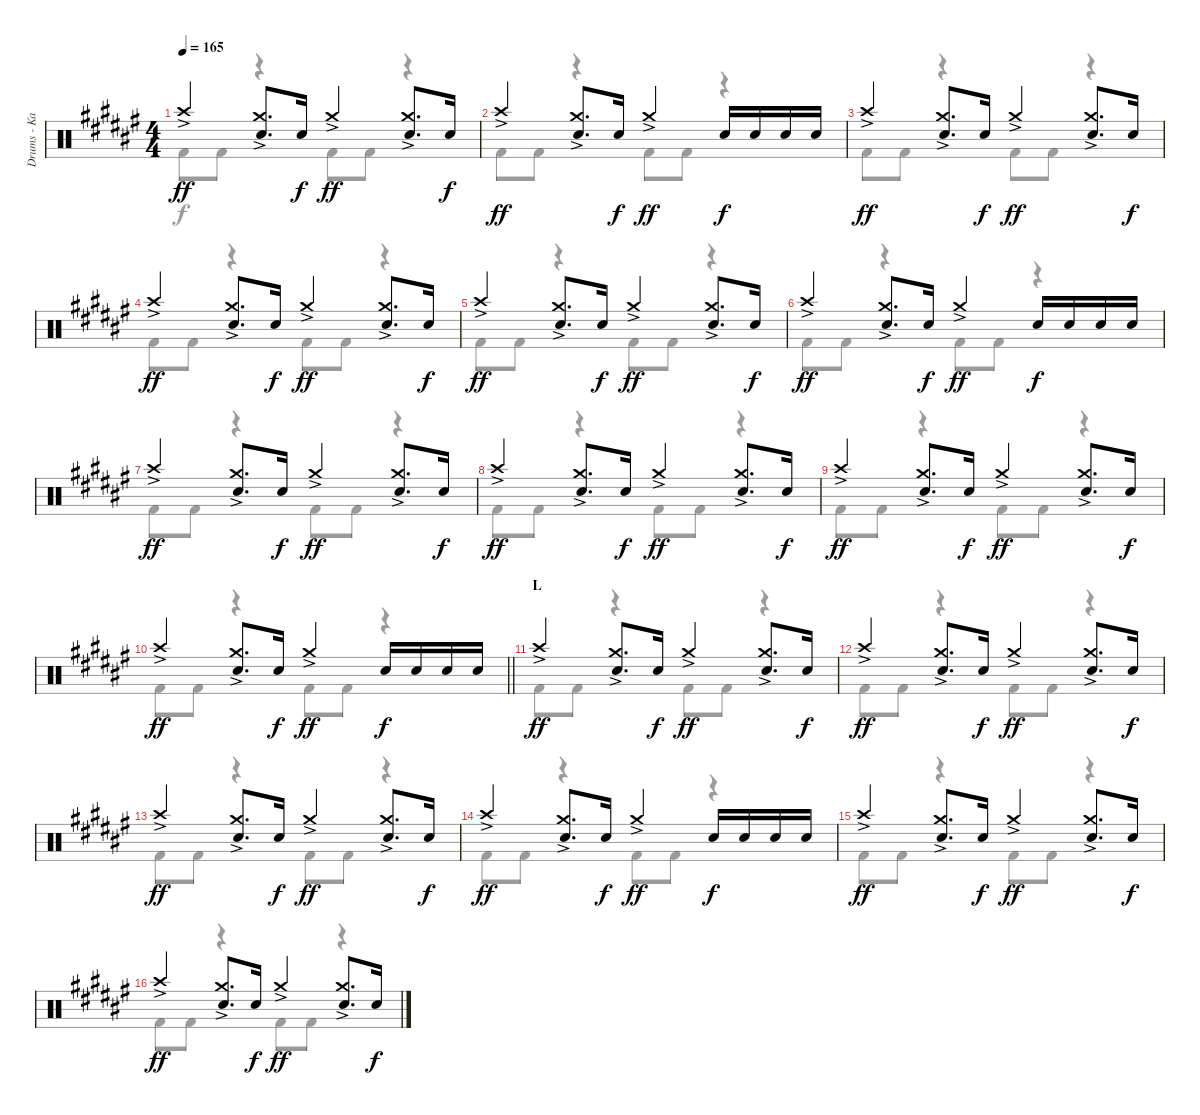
\track ("Drums - Kai" "Drums - Ka") {instrument percussion}
\staff {score}
\articulation defaults
\voice
\ts (4 4)
\tempo 165
\clef neutral
\ks f# "Crash high (hit)"{ac}.4{dy ff}
("Crash medium (hit)"{ac} "Electric Snare (hit)").8{d} "Electric Snare (hit)".16{dy f} "Crash medium (hit)"{ac}.4{dy ff} ("Crash medium (hit)"{ac} "Electric Snare (hit)").8{d} "Electric Snare (hit)".16{dy f} |
"Crash high (hit)"{ac}.4{dy ff} ("Crash medium (hit)"{ac} "Electric Snare (hit)").8{d} "Electric Snare (hit)".16{dy f} "Crash medium (hit)"{ac}.4{dy ff} "Electric Snare (hit)".16{dy f} "Electric Snare (hit)".16 "Electric Snare (hit)".16 "Electric Snare (hit)".16 |
"Crash high (hit)"{ac}.4{dy ff} ("Crash medium (hit)"{ac} "Electric Snare (hit)").8{d} "Electric Snare (hit)".16{dy f} "Crash medium (hit)"{ac}.4{dy ff} ("Crash medium (hit)"{ac} "Electric Snare (hit)").8{d} "Electric Snare (hit)".16{dy f} |
"Crash high (hit)"{ac}.4{dy ff} ("Crash medium (hit)"{ac} "Electric Snare (hit)").8{d} "Electric Snare (hit)".16{dy f} "Crash medium (hit)"{ac}.4{dy ff} ("Crash medium (hit)"{ac} "Electric Snare (hit)").8{d} "Electric Snare (hit)".16{dy f} |
"Crash high (hit)"{ac}.4{dy ff} ("Crash medium (hit)"{ac} "Electric Snare (hit)").8{d} "Electric Snare (hit)".16{dy f} "Crash medium (hit)"{ac}.4{dy ff} ("Crash medium (hit)"{ac} "Electric Snare (hit)").8{d} "Electric Snare (hit)".16{dy f} |
"Crash high (hit)"{ac}.4{dy ff} ("Crash medium (hit)"{ac} "Electric Snare (hit)").8{d} "Electric Snare (hit)".16{dy f} "Crash medium (hit)"{ac}.4{dy ff} "Electric Snare (hit)".16{dy f} "Electric Snare (hit)".16 "Electric Snare (hit)".16 "Electric Snare (hit)".16 |
"Crash high (hit)"{ac}.4{dy ff} ("Crash medium (hit)"{ac} "Electric Snare (hit)").8{d} "Electric Snare (hit)".16{dy f} "Crash medium (hit)"{ac}.4{dy ff} ("Crash medium (hit)"{ac} "Electric Snare (hit)").8{d} "Electric Snare (hit)".16{dy f} |
"Crash high (hit)"{ac}.4{dy ff} ("Crash medium (hit)"{ac} "Electric Snare (hit)").8{d} "Electric Snare (hit)".16{dy f} "Crash medium (hit)"{ac}.4{dy ff} ("Crash medium (hit)"{ac} "Electric Snare (hit)").8{d} "Electric Snare (hit)".16{dy f} |
"Crash high (hit)"{ac}.4{dy ff} ("Crash medium (hit)"{ac} "Electric Snare (hit)").8{d} "Electric Snare (hit)".16{dy f} "Crash medium (hit)"{ac}.4{dy ff} ("Crash medium (hit)"{ac} "Electric Snare (hit)").8{d} "Electric Snare (hit)".16{dy f} |
\barLineRight lightlight "Crash high (hit)"{ac}.4{dy ff}
("Crash medium (hit)"{ac} "Electric Snare (hit)").8{d} "Electric Snare (hit)".16{dy f} "Crash medium (hit)"{ac}.4{dy ff} "Electric Snare (hit)".16{dy f} "Electric Snare (hit)".16 "Electric Snare (hit)".16 "Electric Snare (hit)".16 |
\section ("" "L")
"Crash high (hit)"{ac}.4{dy ff} ("Crash medium (hit)"{ac} "Electric Snare (hit)").8{d} "Electric Snare (hit)".16{dy f} "Crash medium (hit)"{ac}.4{dy ff} ("Crash medium (hit)"{ac} "Electric Snare (hit)").8{d} "Electric Snare (hit)".16{dy f} |
"Crash high (hit)"{ac}.4{dy ff} ("Crash medium (hit)"{ac} "Electric Snare (hit)").8{d} "Electric Snare (hit)".16{dy f} "Crash medium (hit)"{ac}.4{dy ff} ("Crash medium (hit)"{ac} "Electric Snare (hit)").8{d} "Electric Snare (hit)".16{dy f} |
"Crash high (hit)"{ac}.4{dy ff} ("Crash medium (hit)"{ac} "Electric Snare (hit)").8{d} "Electric Snare (hit)".16{dy f} "Crash medium (hit)"{ac}.4{dy ff} ("Crash medium (hit)"{ac} "Electric Snare (hit)").8{d} "Electric Snare (hit)".16{dy f} |
"Crash high (hit)"{ac}.4{dy ff} ("Crash medium (hit)"{ac} "Electric Snare (hit)").8{d} "Electric Snare (hit)".16{dy f} "Crash medium (hit)"{ac}.4{dy ff} "Electric Snare (hit)".16{dy f} "Electric Snare (hit)".16 "Electric Snare (hit)".16 "Electric Snare (hit)".16 |
"Crash high (hit)"{ac}.4{dy ff} ("Crash medium (hit)"{ac} "Electric Snare (hit)").8{d} "Electric Snare (hit)".16{dy f} "Crash medium (hit)"{ac}.4{dy ff} ("Crash medium (hit)"{ac} "Electric Snare (hit)").8{d} "Electric Snare (hit)".16{dy f} |
"Crash high (hit)"{ac}.4{dy ff} ("Crash medium (hit)"{ac} "Electric Snare (hit)").8{d} "Electric Snare (hit)".16{dy f} "Crash medium (hit)"{ac}.4{dy ff} ("Crash medium (hit)"{ac} "Electric Snare (hit)").8{d} "Electric Snare (hit)".16{dy f}
\voice
\clef neutral
\ottava regular
\simile none
\ks f# "Kick (hit) 2".8{dy f} "Kick (hit) 2".8
r.4 "Kick (hit) 2".8 "Kick (hit) 2".8 r.4 |
"Kick (hit) 2".8 "Kick (hit) 2".8 r.4 "Kick (hit) 2".8 "Kick (hit) 2".8 r.4 |
"Kick (hit) 2".8 "Kick (hit) 2".8 r.4 "Kick (hit) 2".8 "Kick (hit) 2".8 r.4 |
"Kick (hit) 2".8 "Kick (hit) 2".8 r.4 "Kick (hit) 2".8 "Kick (hit) 2".8 r.4 |
"Kick (hit) 2".8 "Kick (hit) 2".8 r.4 "Kick (hit) 2".8 "Kick (hit) 2".8 r.4 |
"Kick (hit) 2".8 "Kick (hit) 2".8 r.4 "Kick (hit) 2".8 "Kick (hit) 2".8 r.4 |
"Kick (hit) 2".8 "Kick (hit) 2".8 r.4 "Kick (hit) 2".8 "Kick (hit) 2".8 r.4 |
"Kick (hit) 2".8 "Kick (hit) 2".8 r.4 "Kick (hit) 2".8 "Kick (hit) 2".8 r.4 |
"Kick (hit) 2".8 "Kick (hit) 2".8 r.4 "Kick (hit) 2".8 "Kick (hit) 2".8 r.4 |
\barLineRight lightlight "Kick (hit) 2".8 "Kick (hit) 2".8
r.4 "Kick (hit) 2".8 "Kick (hit) 2".8 r.4 |
"Kick (hit) 2".8 "Kick (hit) 2".8 r.4 "Kick (hit) 2".8 "Kick (hit) 2".8 r.4 |
"Kick (hit) 2".8 "Kick (hit) 2".8 r.4 "Kick (hit) 2".8 "Kick (hit) 2".8 r.4 |
"Kick (hit) 2".8 "Kick (hit) 2".8 r.4 "Kick (hit) 2".8 "Kick (hit) 2".8 r.4 |
"Kick (hit) 2".8 "Kick (hit) 2".8 r.4 "Kick (hit) 2".8 "Kick (hit) 2".8 r.4 |
"Kick (hit) 2".8 "Kick (hit) 2".8 r.4 "Kick (hit) 2".8 "Kick (hit) 2".8 r.4 |
"Kick (hit) 2".8 "Kick (hit) 2".8 r.4 "Kick (hit) 2".8 "Kick (hit) 2".8 r.4
